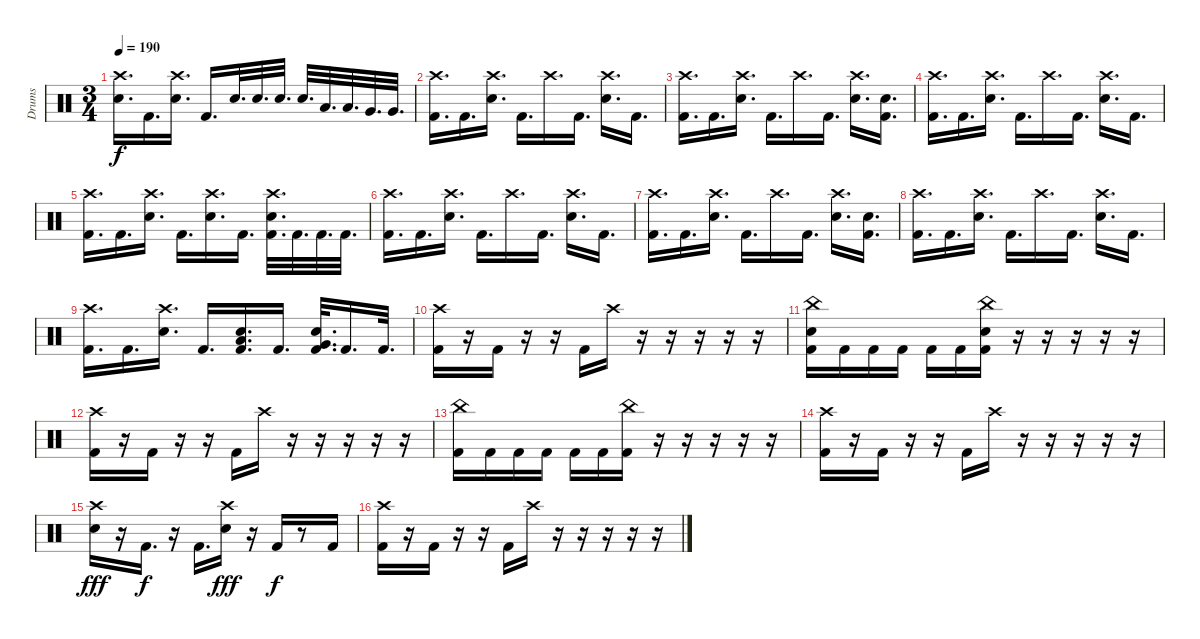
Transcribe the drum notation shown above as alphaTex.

\track ("Drums" "Drums") {instrument percussion}
\staff {score}
\articulation defaults
\ts (3 4)
\tempo 190
\clef neutral
\ks c
("Crash high (hit)" "Electric Snare (hit)").16{d dy f} "Kick (hit) 2".16{d} ("Crash high (hit)" "Electric Snare (hit)").16{d} "Kick (hit) 2".16{d} "Electric Snare (hit)".32{d} "Electric Snare (hit)".32{d} "Electric Snare (hit)".32{d} "Electric Snare (hit)".32{d} "Low Tom (hit)".32{d} "Low Tom (hit)".32{d} "Very Low Tom (hit)".32{d} "Very Low Tom (hit)".32{d} |
("Crash high (hit)" "Kick (hit) 2").16{d} "Kick (hit) 2".16{d} ("Crash high (hit)" "Electric Snare (hit)").16{d} "Kick (hit) 2".16{d} "Crash high (hit)".16{d} "Kick (hit) 2".16{d} ("Crash high (hit)" "Electric Snare (hit)").16{d} "Kick (hit) 2".16{d} |
("Crash high (hit)" "Kick (hit) 2").16{d} "Kick (hit) 2".16{d} ("Crash high (hit)" "Electric Snare (hit)").16{d} "Kick (hit) 2".16{d} "Crash high (hit)".16{d} "Kick (hit) 2".16{d} ("Crash high (hit)" "Electric Snare (hit)").16{d} ("Electric Snare (hit)" "Kick (hit) 2").16{d} |
("Crash high (hit)" "Kick (hit) 2").16{d} "Kick (hit) 2".16{d} ("Crash high (hit)" "Electric Snare (hit)").16{d} "Kick (hit) 2".16{d} "Crash high (hit)".16{d} "Kick (hit) 2".16{d} ("Crash high (hit)" "Electric Snare (hit)").16{d} "Kick (hit) 2".16{d} |
("Crash high (hit)" "Kick (hit) 2").16{d} "Kick (hit) 2".16{d} ("Crash high (hit)" "Electric Snare (hit)").16{d} "Kick (hit) 2".16{d} ("Crash high (hit)" "Electric Snare (hit)").16{d} "Kick (hit) 2".16{d} ("Crash high (hit)" "Electric Snare (hit)" "Kick (hit) 2").32{d} "Kick (hit) 2".32{d} "Kick (hit) 2".32{d} "Kick (hit) 2".32{d} |
("Crash high (hit)" "Kick (hit) 2").16{d} "Kick (hit) 2".16{d} ("Crash high (hit)" "Electric Snare (hit)").16{d} "Kick (hit) 2".16{d} "Crash high (hit)".16{d} "Kick (hit) 2".16{d} ("Crash high (hit)" "Electric Snare (hit)").16{d} "Kick (hit) 2".16{d} |
("Crash high (hit)" "Kick (hit) 2").16{d} "Kick (hit) 2".16{d} ("Crash high (hit)" "Electric Snare (hit)").16{d} "Kick (hit) 2".16{d} "Crash high (hit)".16{d} "Kick (hit) 2".16{d} ("Crash high (hit)" "Electric Snare (hit)").16{d} ("Electric Snare (hit)" "Kick (hit) 2").16{d} |
("Crash high (hit)" "Kick (hit) 2").16{d} "Kick (hit) 2".16{d} ("Crash high (hit)" "Electric Snare (hit)").16{d} "Kick (hit) 2".16{d} "Crash high (hit)".16{d} "Kick (hit) 2".16{d} ("Crash high (hit)" "Electric Snare (hit)").16{d} "Kick (hit) 2".16{d} |
("Crash high (hit)" "Kick (hit) 2").16{d} "Kick (hit) 2".16{d} ("Crash high (hit)" "Electric Snare (hit)").16{d} "Kick (hit) 2".16{d} ("Low Tom (hit)" "Electric Snare (hit)" "Kick (hit) 2").16{d} "Kick (hit) 2".16{d} ("Very Low Tom (hit)" "Electric Snare (hit)" "Kick (hit) 2").32{d} "Kick (hit) 2".16{d} "Kick (hit) 2".32{d} |
("Crash high (hit)" "Kick (hit) 2").16 r.16 "Kick (hit) 2".16 r.16 r.16 "Kick (hit) 2".16 "Crash high (hit)".16 r.16 r.16 r.16 r.16 r.16 |
("China (hit)" "Electric Snare (hit)" "Kick (hit) 2").16 "Kick (hit) 2".16 "Kick (hit) 2".16 "Kick (hit) 2".16 "Kick (hit) 2".16 "Kick (hit) 2".16 ("China (hit)" "Electric Snare (hit)" "Kick (hit) 2").16 r.16 r.16 r.16 r.16 r.16 |
("Crash high (hit)" "Kick (hit) 2").16 r.16 "Kick (hit) 2".16 r.16 r.16 "Kick (hit) 2".16 "Crash high (hit)".16 r.16 r.16 r.16 r.16 r.16 |
("China (hit)" "Kick (hit) 2").16 "Kick (hit) 2".16 "Kick (hit) 2".16 "Kick (hit) 2".16 "Kick (hit) 2".16 "Kick (hit) 2".16 ("China (hit)" "Kick (hit) 2").16 r.16 r.16 r.16 r.16 r.16 |
("Crash high (hit)" "Kick (hit) 2").16 r.16 "Kick (hit) 2".16 r.16 r.16 "Kick (hit) 2".16 "Crash high (hit)".16 r.16 r.16 r.16 r.16 r.16 |
("Crash high (hit)" "Electric Snare (hit)").16{dy fff} r.16 "Kick (hit) 2".16{d dy f} r.16 "Kick (hit) 2".16{d} ("Crash high (hit)" "Electric Snare (hit)").16{dy fff} r.16 "Kick (hit) 2".16{dy f} r.8 "Kick (hit) 2".16 |
("Crash high (hit)" "Kick (hit) 2").16 r.16 "Kick (hit) 2".16 r.16 r.16 "Kick (hit) 2".16 "Crash high (hit)".16 r.16 r.16 r.16 r.16 r.16
